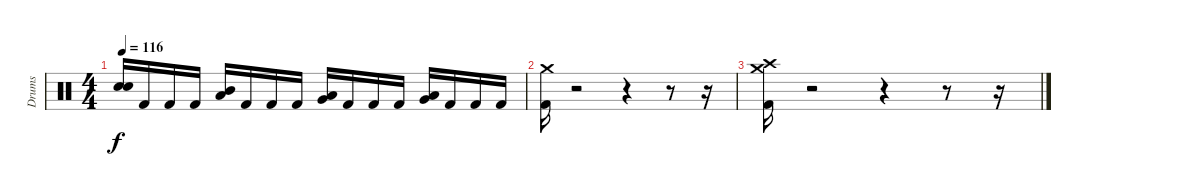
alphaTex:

\track ("Drums" "Drums") {instrument percussion}
\staff {score}
\articulation defaults
\ts (4 4)
\tempo 116
\clef neutral
\ks c
("Snare (hit) 2" "Electric Snare (hit)").16{dy f} "Kick (hit) 2".16 "Kick (hit) 2".16 "Kick (hit) 2".16 ("Low Tom (hit)" "Mid Tom (hit)").16 "Kick (hit) 2".16 "Kick (hit) 2".16 "Kick (hit) 2".16 ("Very Low Tom (hit)" "Low Tom (hit)").16 "Kick (hit) 2".16 "Kick (hit) 2".16 "Kick (hit) 2".16 ("Very Low Tom (hit)" "Low Floor Tom (hit)").16 "Kick (hit) 2".16 "Kick (hit) 2".16 "Kick (hit) 2".16 |
("Crash medium (hit)" "Kick (hit) 2").16 r.2 r.4 r.8 r.16 |
("Crash high (hit)" "Crash medium (hit)" "Kick (hit) 2").16 r.2 r.4 r.8 r.16
